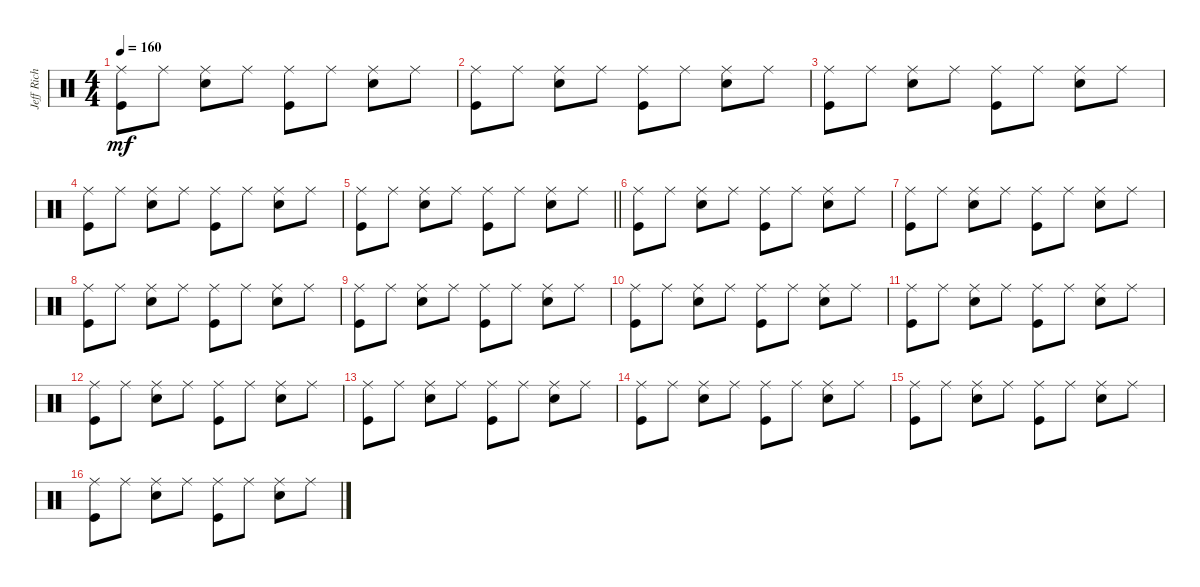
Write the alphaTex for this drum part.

\track ("Jeff Rich (Percussion)" "Jeff Rich ") {instrument percussion}
\staff {score}
\articulation defaults
\ts (4 4)
\tempo 160
\clef neutral
\ks c
("Ride (middle)" "Kick (hit)").8{dy mf} "Ride (middle)".8 ("Ride (middle)" "Snare (hit) 2").8 "Ride (middle)".8 ("Ride (middle)" "Kick (hit)").8 "Ride (middle)".8 ("Ride (middle)" "Snare (hit) 2").8 "Ride (middle)".8 |
("Ride (middle)" "Kick (hit)").8 "Ride (middle)".8 ("Ride (middle)" "Snare (hit) 2").8 "Ride (middle)".8 ("Ride (middle)" "Kick (hit)").8 "Ride (middle)".8 ("Ride (middle)" "Snare (hit) 2").8 "Ride (middle)".8 |
("Ride (middle)" "Kick (hit)").8 "Ride (middle)".8 ("Ride (middle)" "Snare (hit) 2").8 "Ride (middle)".8 ("Ride (middle)" "Kick (hit)").8 "Ride (middle)".8 ("Ride (middle)" "Snare (hit) 2").8 "Ride (middle)".8 |
("Ride (middle)" "Kick (hit)").8 "Ride (middle)".8 ("Ride (middle)" "Snare (hit) 2").8 "Ride (middle)".8 ("Ride (middle)" "Kick (hit)").8 "Ride (middle)".8 ("Ride (middle)" "Snare (hit) 2").8 "Ride (middle)".8 |
\barLineRight lightlight
("Ride (middle)" "Kick (hit)").8 "Ride (middle)".8 ("Ride (middle)" "Snare (hit) 2").8 "Ride (middle)".8 ("Ride (middle)" "Kick (hit)").8 "Ride (middle)".8 ("Ride (middle)" "Snare (hit) 2").8 "Ride (middle)".8 |
("Ride (middle)" "Kick (hit)").8 "Ride (middle)".8 ("Ride (middle)" "Snare (hit) 2").8 "Ride (middle)".8 ("Ride (middle)" "Kick (hit)").8 "Ride (middle)".8 ("Ride (middle)" "Snare (hit) 2").8 "Ride (middle)".8 |
("Ride (middle)" "Kick (hit)").8 "Ride (middle)".8 ("Ride (middle)" "Snare (hit) 2").8 "Ride (middle)".8 ("Ride (middle)" "Kick (hit)").8 "Ride (middle)".8 ("Ride (middle)" "Snare (hit) 2").8 "Ride (middle)".8 |
("Ride (middle)" "Kick (hit)").8 "Ride (middle)".8 ("Ride (middle)" "Snare (hit) 2").8 "Ride (middle)".8 ("Ride (middle)" "Kick (hit)").8 "Ride (middle)".8 ("Ride (middle)" "Snare (hit) 2").8 "Ride (middle)".8 |
("Ride (middle)" "Kick (hit)").8 "Ride (middle)".8 ("Ride (middle)" "Snare (hit) 2").8 "Ride (middle)".8 ("Ride (middle)" "Kick (hit)").8 "Ride (middle)".8 ("Ride (middle)" "Snare (hit) 2").8 "Ride (middle)".8 |
("Ride (middle)" "Kick (hit)").8 "Ride (middle)".8 ("Ride (middle)" "Snare (hit) 2").8 "Ride (middle)".8 ("Ride (middle)" "Kick (hit)").8 "Ride (middle)".8 ("Ride (middle)" "Snare (hit) 2").8 "Ride (middle)".8 |
("Ride (middle)" "Kick (hit)").8 "Ride (middle)".8 ("Ride (middle)" "Snare (hit) 2").8 "Ride (middle)".8 ("Ride (middle)" "Kick (hit)").8 "Ride (middle)".8 ("Ride (middle)" "Snare (hit) 2").8 "Ride (middle)".8 |
("Ride (middle)" "Kick (hit)").8 "Ride (middle)".8 ("Ride (middle)" "Snare (hit) 2").8 "Ride (middle)".8 ("Ride (middle)" "Kick (hit)").8 "Ride (middle)".8 ("Ride (middle)" "Snare (hit) 2").8 "Ride (middle)".8 |
("Ride (middle)" "Kick (hit)").8 "Ride (middle)".8 ("Ride (middle)" "Snare (hit) 2").8 "Ride (middle)".8 ("Ride (middle)" "Kick (hit)").8 "Ride (middle)".8 ("Ride (middle)" "Snare (hit) 2").8 "Ride (middle)".8 |
("Ride (middle)" "Kick (hit)").8 "Ride (middle)".8 ("Ride (middle)" "Snare (hit) 2").8 "Ride (middle)".8 ("Ride (middle)" "Kick (hit)").8 "Ride (middle)".8 ("Ride (middle)" "Snare (hit) 2").8 "Ride (middle)".8 |
("Ride (middle)" "Kick (hit)").8 "Ride (middle)".8 ("Ride (middle)" "Snare (hit) 2").8 "Ride (middle)".8 ("Ride (middle)" "Kick (hit)").8 "Ride (middle)".8 ("Ride (middle)" "Snare (hit) 2").8 "Ride (middle)".8 |
("Ride (middle)" "Kick (hit)").8 "Ride (middle)".8 ("Ride (middle)" "Snare (hit) 2").8 "Ride (middle)".8 ("Ride (middle)" "Kick (hit)").8 "Ride (middle)".8 ("Ride (middle)" "Snare (hit) 2").8 "Ride (middle)".8
